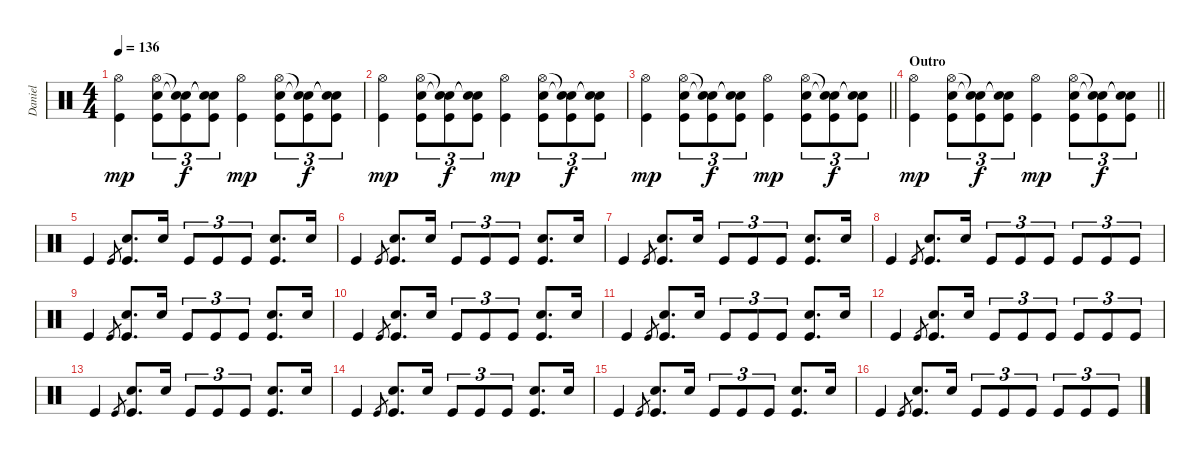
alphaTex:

\track ("Daniel" "Daniel") {instrument percussion}
\staff {score}
\articulation defaults
\ts (4 4)
\tempo 136
\clef neutral
\ks c
("Hi-Hat (open)" "Kick (hit)").4{dy mp} ("Hi-Hat (open)" "Snare (hit) 2" "Kick (hit)").8{tu (3 2)} ("Snare (hit)"{t} "Snare (hit)"{t} "Kick (hit)").8{tu (3 2) dy f} ("Snare (hit)"{t} "Snare (hit)"{t} "Kick (hit)").8{tu (3 2)} ("Hi-Hat (open)" "Kick (hit)").4{dy mp} ("Hi-Hat (open)" "Snare (hit) 2" "Kick (hit)").8{tu (3 2)} ("Snare (hit)"{t} "Snare (hit)"{t} "Kick (hit)").8{tu (3 2) dy f} ("Snare (hit)"{t} "Snare (hit)"{t} "Kick (hit)").8{tu (3 2)} |
("Hi-Hat (open)" "Kick (hit)").4{dy mp} ("Hi-Hat (open)" "Snare (hit) 2" "Kick (hit)").8{tu (3 2)} ("Snare (hit)"{t} "Snare (hit)"{t} "Kick (hit)").8{tu (3 2) dy f} ("Snare (hit)"{t} "Snare (hit)"{t} "Kick (hit)").8{tu (3 2)} ("Hi-Hat (open)" "Kick (hit)").4{dy mp} ("Hi-Hat (open)" "Snare (hit) 2" "Kick (hit)").8{tu (3 2)} ("Snare (hit)"{t} "Snare (hit)"{t} "Kick (hit)").8{tu (3 2) dy f} ("Snare (hit)"{t} "Snare (hit)"{t} "Kick (hit)").8{tu (3 2)} |
\barLineRight lightlight
("Hi-Hat (open)" "Kick (hit)").4{dy mp} ("Hi-Hat (open)" "Snare (hit) 2" "Kick (hit)").8{tu (3 2)} ("Snare (hit)"{t} "Snare (hit)"{t} "Kick (hit)").8{tu (3 2) dy f} ("Snare (hit)"{t} "Snare (hit)"{t} "Kick (hit)").8{tu (3 2)} ("Hi-Hat (open)" "Kick (hit)").4{dy mp} ("Hi-Hat (open)" "Snare (hit) 2" "Kick (hit)").8{tu (3 2)} ("Snare (hit)"{t} "Snare (hit)"{t} "Kick (hit)").8{tu (3 2) dy f} ("Snare (hit)"{t} "Snare (hit)"{t} "Kick (hit)").8{tu (3 2)} |
\section ("" "Outro")
\barLineRight lightlight
("Hi-Hat (open)" "Kick (hit)").4{dy mp} ("Hi-Hat (open)" "Snare (hit) 2" "Kick (hit)").8{tu (3 2)} ("Snare (hit)"{t} "Snare (hit)"{t} "Kick (hit)").8{tu (3 2) dy f} ("Snare (hit)"{t} "Snare (hit)"{t} "Kick (hit)").8{tu (3 2)} ("Hi-Hat (open)" "Kick (hit)").4{dy mp} ("Hi-Hat (open)" "Snare (hit) 2" "Kick (hit)").8{tu (3 2)} ("Snare (hit)"{t} "Snare (hit)"{t} "Kick (hit)").8{tu (3 2) dy f} ("Snare (hit)"{t} "Snare (hit)"{t} "Kick (hit)").8{tu (3 2)} |
"Kick (hit)".4 "Kick (hit)"{h}.8{gr} ("Snare (hit) 2" "Kick (hit)").8{d} "Snare (hit) 2".16 "Kick (hit)".8{tu (3 2)} "Kick (hit)".8{tu (3 2)} "Kick (hit)".8{tu (3 2)} ("Snare (hit) 2" "Kick (hit)").8{d} "Snare (hit) 2".16 |
"Kick (hit)".4 "Kick (hit)"{h}.8{gr} ("Snare (hit) 2" "Kick (hit)").8{d} "Snare (hit) 2".16 "Kick (hit)".8{tu (3 2)} "Kick (hit)".8{tu (3 2)} "Kick (hit)".8{tu (3 2)} ("Snare (hit) 2" "Kick (hit)").8{d} "Snare (hit) 2".16 |
"Kick (hit)".4 "Kick (hit)"{h}.8{gr} ("Snare (hit) 2" "Kick (hit)").8{d} "Snare (hit) 2".16 "Kick (hit)".8{tu (3 2)} "Kick (hit)".8{tu (3 2)} "Kick (hit)".8{tu (3 2)} ("Snare (hit) 2" "Kick (hit)").8{d} "Snare (hit) 2".16 |
"Kick (hit)".4 "Kick (hit)"{h}.8{gr} ("Snare (hit) 2" "Kick (hit)").8{d} "Snare (hit) 2".16 "Kick (hit)".8{tu (3 2)} "Kick (hit)".8{tu (3 2)} "Kick (hit)".8{tu (3 2)} "Kick (hit)".8{tu (3 2)} "Kick (hit)".8{tu (3 2)} "Kick (hit)".8{tu (3 2)} |
"Kick (hit)".4 "Kick (hit)"{h}.8{gr} ("Snare (hit) 2" "Kick (hit)").8{d} "Snare (hit) 2".16 "Kick (hit)".8{tu (3 2)} "Kick (hit)".8{tu (3 2)} "Kick (hit)".8{tu (3 2)} ("Snare (hit) 2" "Kick (hit)").8{d} "Snare (hit) 2".16 |
"Kick (hit)".4 "Kick (hit)"{h}.8{gr} ("Snare (hit) 2" "Kick (hit)").8{d} "Snare (hit) 2".16 "Kick (hit)".8{tu (3 2)} "Kick (hit)".8{tu (3 2)} "Kick (hit)".8{tu (3 2)} ("Snare (hit) 2" "Kick (hit)").8{d} "Snare (hit) 2".16 |
"Kick (hit)".4 "Kick (hit)"{h}.8{gr} ("Snare (hit) 2" "Kick (hit)").8{d} "Snare (hit) 2".16 "Kick (hit)".8{tu (3 2)} "Kick (hit)".8{tu (3 2)} "Kick (hit)".8{tu (3 2)} ("Snare (hit) 2" "Kick (hit)").8{d} "Snare (hit) 2".16 |
"Kick (hit)".4 "Kick (hit)"{h}.8{gr} ("Snare (hit) 2" "Kick (hit)").8{d} "Snare (hit) 2".16 "Kick (hit)".8{tu (3 2)} "Kick (hit)".8{tu (3 2)} "Kick (hit)".8{tu (3 2)} "Kick (hit)".8{tu (3 2)} "Kick (hit)".8{tu (3 2)} "Kick (hit)".8{tu (3 2)} |
"Kick (hit)".4 "Kick (hit)"{h}.8{gr} ("Snare (hit) 2" "Kick (hit)").8{d} "Snare (hit) 2".16 "Kick (hit)".8{tu (3 2)} "Kick (hit)".8{tu (3 2)} "Kick (hit)".8{tu (3 2)} ("Snare (hit) 2" "Kick (hit)").8{d} "Snare (hit) 2".16 |
"Kick (hit)".4 "Kick (hit)"{h}.8{gr} ("Snare (hit) 2" "Kick (hit)").8{d} "Snare (hit) 2".16 "Kick (hit)".8{tu (3 2)} "Kick (hit)".8{tu (3 2)} "Kick (hit)".8{tu (3 2)} ("Snare (hit) 2" "Kick (hit)").8{d} "Snare (hit) 2".16 |
"Kick (hit)".4 "Kick (hit)"{h}.8{gr} ("Snare (hit) 2" "Kick (hit)").8{d} "Snare (hit) 2".16 "Kick (hit)".8{tu (3 2)} "Kick (hit)".8{tu (3 2)} "Kick (hit)".8{tu (3 2)} ("Snare (hit) 2" "Kick (hit)").8{d} "Snare (hit) 2".16 |
"Kick (hit)".4 "Kick (hit)"{h}.8{gr} ("Snare (hit) 2" "Kick (hit)").8{d} "Snare (hit) 2".16 "Kick (hit)".8{tu (3 2)} "Kick (hit)".8{tu (3 2)} "Kick (hit)".8{tu (3 2)} "Kick (hit)".8{tu (3 2)} "Kick (hit)".8{tu (3 2)} "Kick (hit)".8{tu (3 2)}
